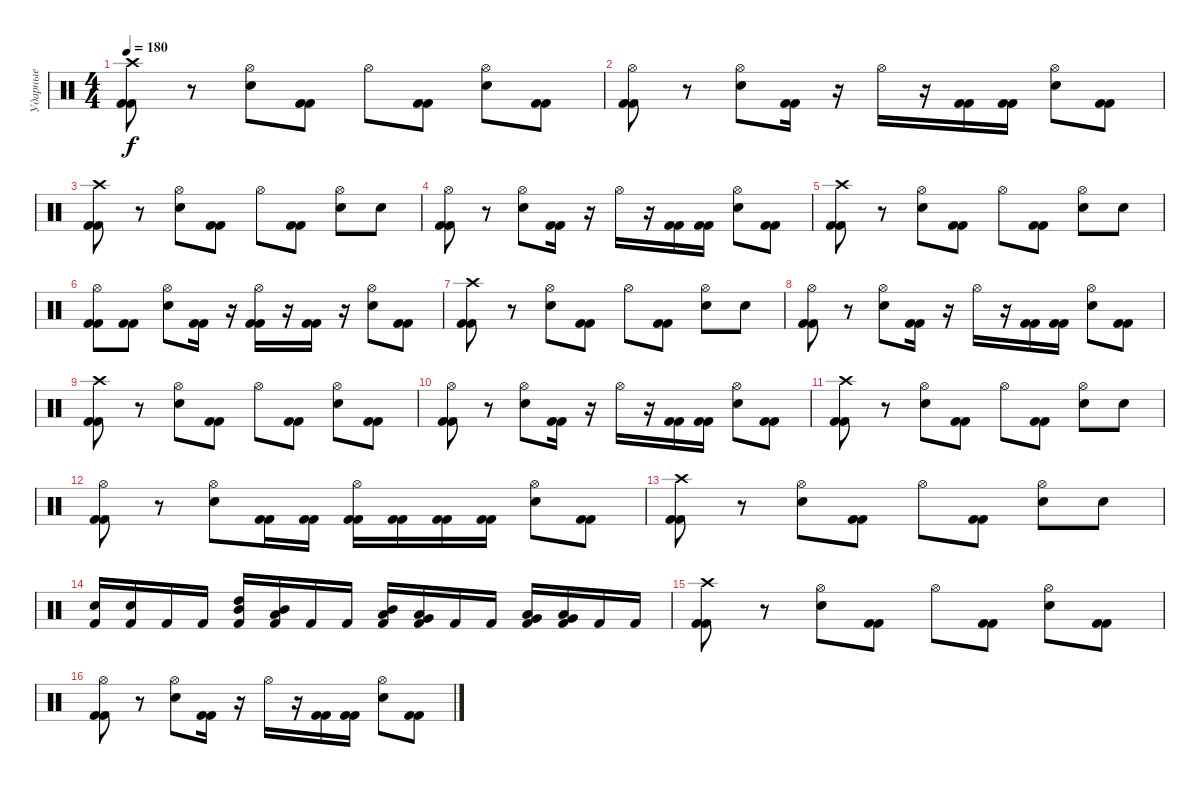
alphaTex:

\track ("Ударные" "Ударные") {instrument percussion}
\staff {score}
\articulation defaults
\ts (4 4)
\tempo 180
\clef neutral
\ks c
("Crash high (hit)" "Kick (hit) 2" "Kick (hit) 2").8{dy f} r.8 ("Hi-Hat (open)" "Electric Snare (hit)").8 ("Kick (hit) 2" "Kick (hit) 2").8 "Hi-Hat (open)".8 ("Kick (hit) 2" "Kick (hit) 2").8 ("Hi-Hat (open)" "Electric Snare (hit)").8 ("Kick (hit) 2" "Kick (hit) 2").8 |
("Hi-Hat (open)" "Kick (hit) 2" "Kick (hit) 2").8 r.8 ("Hi-Hat (open)" "Electric Snare (hit)").8 ("Kick (hit) 2" "Kick (hit) 2").16 r.16 "Hi-Hat (open)".16 r.16 ("Kick (hit) 2" "Kick (hit) 2").16 ("Kick (hit) 2" "Kick (hit) 2").16 ("Hi-Hat (open)" "Electric Snare (hit)").8 ("Kick (hit) 2" "Kick (hit) 2").8 |
("Crash high (hit)" "Kick (hit) 2" "Kick (hit) 2").8 r.8 ("Hi-Hat (open)" "Electric Snare (hit)").8 ("Kick (hit) 2" "Kick (hit) 2").8 "Hi-Hat (open)".8 ("Kick (hit) 2" "Kick (hit) 2").8 ("Hi-Hat (open)" "Electric Snare (hit)").8 "Electric Snare (hit)".8 |
("Hi-Hat (open)" "Kick (hit) 2" "Kick (hit) 2").8 r.8 ("Hi-Hat (open)" "Electric Snare (hit)").8 ("Kick (hit) 2" "Kick (hit) 2").16 r.16 "Hi-Hat (open)".16 r.16 ("Kick (hit) 2" "Kick (hit) 2").16 ("Kick (hit) 2" "Kick (hit) 2").16 ("Hi-Hat (open)" "Electric Snare (hit)").8 ("Kick (hit) 2" "Kick (hit) 2").8 |
("Crash high (hit)" "Kick (hit) 2" "Kick (hit) 2").8 r.8 ("Hi-Hat (open)" "Electric Snare (hit)").8 ("Kick (hit) 2" "Kick (hit) 2").8 "Hi-Hat (open)".8 ("Kick (hit) 2" "Kick (hit) 2").8 ("Hi-Hat (open)" "Electric Snare (hit)").8 "Electric Snare (hit)".8 |
("Hi-Hat (open)" "Kick (hit) 2" "Kick (hit) 2").8 ("Kick (hit) 2" "Kick (hit) 2").8 ("Hi-Hat (open)" "Electric Snare (hit)").8 ("Kick (hit) 2" "Kick (hit) 2").16 r.16 ("Hi-Hat (open)" "Kick (hit) 2" "Kick (hit) 2").16 r.16 ("Kick (hit) 2" "Kick (hit) 2").16 r.16 ("Hi-Hat (open)" "Electric Snare (hit)").8 ("Kick (hit) 2" "Kick (hit) 2").8 |
("Crash high (hit)" "Kick (hit) 2" "Kick (hit) 2").8 r.8 ("Hi-Hat (open)" "Electric Snare (hit)").8 ("Kick (hit) 2" "Kick (hit) 2").8 "Hi-Hat (open)".8 ("Kick (hit) 2" "Kick (hit) 2").8 ("Hi-Hat (open)" "Electric Snare (hit)").8 "Electric Snare (hit)".8 |
("Hi-Hat (open)" "Kick (hit) 2" "Kick (hit) 2").8 r.8 ("Hi-Hat (open)" "Electric Snare (hit)").8 ("Kick (hit) 2" "Kick (hit) 2").16 r.16 "Hi-Hat (open)".16 r.16 ("Kick (hit) 2" "Kick (hit) 2").16 ("Kick (hit) 2" "Kick (hit) 2").16 ("Hi-Hat (open)" "Electric Snare (hit)").8 ("Kick (hit) 2" "Kick (hit) 2").8 |
("Crash high (hit)" "Kick (hit) 2" "Kick (hit) 2").8 r.8 ("Hi-Hat (open)" "Electric Snare (hit)").8 ("Kick (hit) 2" "Kick (hit) 2").8 "Hi-Hat (open)".8 ("Kick (hit) 2" "Kick (hit) 2").8 ("Hi-Hat (open)" "Electric Snare (hit)").8 ("Kick (hit) 2" "Kick (hit) 2").8 |
("Hi-Hat (open)" "Kick (hit) 2" "Kick (hit) 2").8 r.8 ("Hi-Hat (open)" "Electric Snare (hit)").8 ("Kick (hit) 2" "Kick (hit) 2").16 r.16 "Hi-Hat (open)".16 r.16 ("Kick (hit) 2" "Kick (hit) 2").16 ("Kick (hit) 2" "Kick (hit) 2").16 ("Hi-Hat (open)" "Electric Snare (hit)").8 ("Kick (hit) 2" "Kick (hit) 2").8 |
("Crash high (hit)" "Kick (hit) 2" "Kick (hit) 2").8 r.8 ("Hi-Hat (open)" "Electric Snare (hit)").8 ("Kick (hit) 2" "Kick (hit) 2").8 "Hi-Hat (open)".8 ("Kick (hit) 2" "Kick (hit) 2").8 ("Hi-Hat (open)" "Electric Snare (hit)").8 "Electric Snare (hit)".8 |
("Hi-Hat (open)" "Kick (hit) 2" "Kick (hit) 2").8 r.8 ("Hi-Hat (open)" "Electric Snare (hit)").8 ("Kick (hit) 2" "Kick (hit) 2").16 ("Kick (hit) 2" "Kick (hit) 2").16 ("Hi-Hat (open)" "Kick (hit) 2" "Kick (hit) 2").16 ("Kick (hit) 2" "Kick (hit) 2").16 ("Kick (hit) 2" "Kick (hit) 2").16 ("Kick (hit) 2" "Kick (hit) 2").16 ("Hi-Hat (open)" "Electric Snare (hit)").8 ("Kick (hit) 2" "Kick (hit) 2").8 |
("Crash high (hit)" "Kick (hit) 2" "Kick (hit) 2").8 r.8 ("Hi-Hat (open)" "Electric Snare (hit)").8 ("Kick (hit) 2" "Kick (hit) 2").8 "Hi-Hat (open)".8 ("Kick (hit) 2" "Kick (hit) 2").8 ("Hi-Hat (open)" "Electric Snare (hit)").8 "Electric Snare (hit)".8 |
("Electric Snare (hit)" "Kick (hit) 2").16 ("Electric Snare (hit)" "Kick (hit) 2").16 "Kick (hit) 2".16 "Kick (hit) 2".16 ("High Tom (hit)" "Mid Tom (hit)" "Kick (hit) 2").16 ("Mid Tom (hit)" "Low Tom (hit)" "Kick (hit) 2").16 "Kick (hit) 2".16 "Kick (hit) 2".16 ("Mid Tom (hit)" "Low Tom (hit)" "Kick (hit) 2").16 ("Low Tom (hit)" "Very Low Tom (hit)" "Kick (hit) 2").16 "Kick (hit) 2".16 "Kick (hit) 2".16 ("Low Tom (hit)" "Very Low Tom (hit)" "Kick (hit) 2").16 ("Very Low Tom (hit)" "Low Floor Tom (hit)" "Kick (hit) 2").16 "Kick (hit) 2".16 "Kick (hit) 2".16 |
("Crash high (hit)" "Kick (hit) 2" "Kick (hit) 2").8 r.8 ("Hi-Hat (open)" "Electric Snare (hit)").8 ("Kick (hit) 2" "Kick (hit) 2").8 "Hi-Hat (open)".8 ("Kick (hit) 2" "Kick (hit) 2").8 ("Hi-Hat (open)" "Electric Snare (hit)").8 ("Kick (hit) 2" "Kick (hit) 2").8 |
("Hi-Hat (open)" "Kick (hit) 2" "Kick (hit) 2").8 r.8 ("Hi-Hat (open)" "Electric Snare (hit)").8 ("Kick (hit) 2" "Kick (hit) 2").16 r.16 "Hi-Hat (open)".16 r.16 ("Kick (hit) 2" "Kick (hit) 2").16 ("Kick (hit) 2" "Kick (hit) 2").16 ("Hi-Hat (open)" "Electric Snare (hit)").8 ("Kick (hit) 2" "Kick (hit) 2").8
